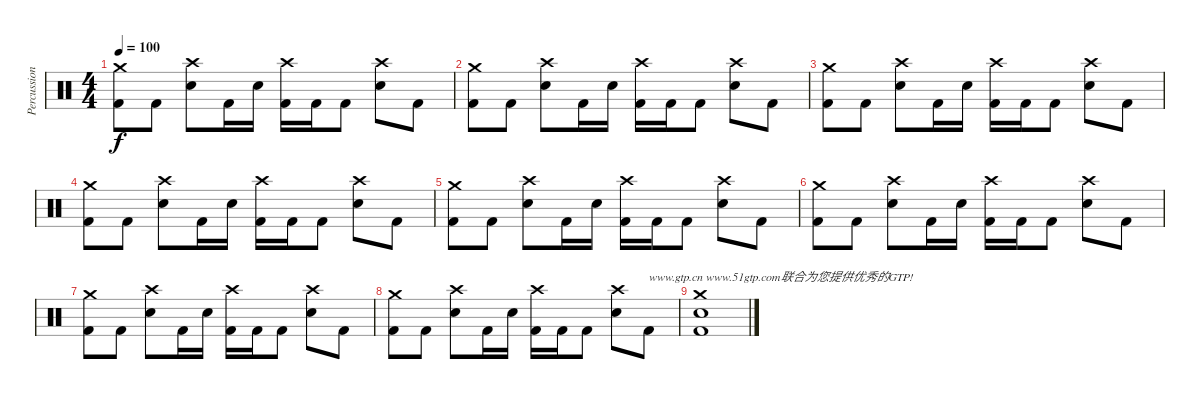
\track ("Percussion" "Percussion") {instrument percussion}
\staff {score}
\articulation defaults
\ts (4 4)
\tempo 100
\clef neutral
\ks c
("Crash medium (hit)" "Kick (hit) 2").8{dy f} "Kick (hit) 2".8 ("Crash high (hit)" "Electric Snare (hit)").8 "Kick (hit) 2".16 "Electric Snare (hit)".16 ("Crash high (hit)" "Kick (hit) 2").16 "Kick (hit) 2".16 "Kick (hit) 2".8 ("Crash high (hit)" "Electric Snare (hit)").8 "Kick (hit) 2".8 |
("Crash medium (hit)" "Kick (hit) 2").8 "Kick (hit) 2".8 ("Crash high (hit)" "Electric Snare (hit)").8 "Kick (hit) 2".16 "Electric Snare (hit)".16 ("Crash high (hit)" "Kick (hit) 2").16 "Kick (hit) 2".16 "Kick (hit) 2".8 ("Crash high (hit)" "Electric Snare (hit)").8 "Kick (hit) 2".8 |
("Crash medium (hit)" "Kick (hit) 2").8 "Kick (hit) 2".8 ("Crash high (hit)" "Electric Snare (hit)").8 "Kick (hit) 2".16 "Electric Snare (hit)".16 ("Crash high (hit)" "Kick (hit) 2").16 "Kick (hit) 2".16 "Kick (hit) 2".8 ("Crash high (hit)" "Electric Snare (hit)").8 "Kick (hit) 2".8 |
("Crash medium (hit)" "Kick (hit) 2").8 "Kick (hit) 2".8 ("Crash high (hit)" "Electric Snare (hit)").8 "Kick (hit) 2".16 "Electric Snare (hit)".16 ("Crash high (hit)" "Kick (hit) 2").16 "Kick (hit) 2".16 "Kick (hit) 2".8 ("Crash high (hit)" "Electric Snare (hit)").8 "Kick (hit) 2".8 |
("Crash medium (hit)" "Kick (hit) 2").8 "Kick (hit) 2".8 ("Crash high (hit)" "Electric Snare (hit)").8 "Kick (hit) 2".16 "Electric Snare (hit)".16 ("Crash high (hit)" "Kick (hit) 2").16 "Kick (hit) 2".16 "Kick (hit) 2".8 ("Crash high (hit)" "Electric Snare (hit)").8 "Kick (hit) 2".8 |
("Crash medium (hit)" "Kick (hit) 2").8 "Kick (hit) 2".8 ("Crash high (hit)" "Electric Snare (hit)").8 "Kick (hit) 2".16 "Electric Snare (hit)".16 ("Crash high (hit)" "Kick (hit) 2").16 "Kick (hit) 2".16 "Kick (hit) 2".8 ("Crash high (hit)" "Electric Snare (hit)").8 "Kick (hit) 2".8 |
("Crash medium (hit)" "Kick (hit) 2").8 "Kick (hit) 2".8 ("Crash high (hit)" "Electric Snare (hit)").8 "Kick (hit) 2".16 "Electric Snare (hit)".16 ("Crash high (hit)" "Kick (hit) 2").16 "Kick (hit) 2".16 "Kick (hit) 2".8 ("Crash high (hit)" "Electric Snare (hit)").8 "Kick (hit) 2".8 |
("Crash medium (hit)" "Kick (hit) 2").8 "Kick (hit) 2".8 ("Crash high (hit)" "Electric Snare (hit)").8 "Kick (hit) 2".16 "Electric Snare (hit)".16 ("Crash high (hit)" "Kick (hit) 2").16 "Kick (hit) 2".16 "Kick (hit) 2".8 ("Crash high (hit)" "Electric Snare (hit)").8 "Kick (hit) 2".8{txt "www.gtp.cn www.51gtp.com联合为您提供优秀的GTP!"} |
("Crash medium (hit)" "Kick (hit) 2" "Electric Snare (hit)").1
